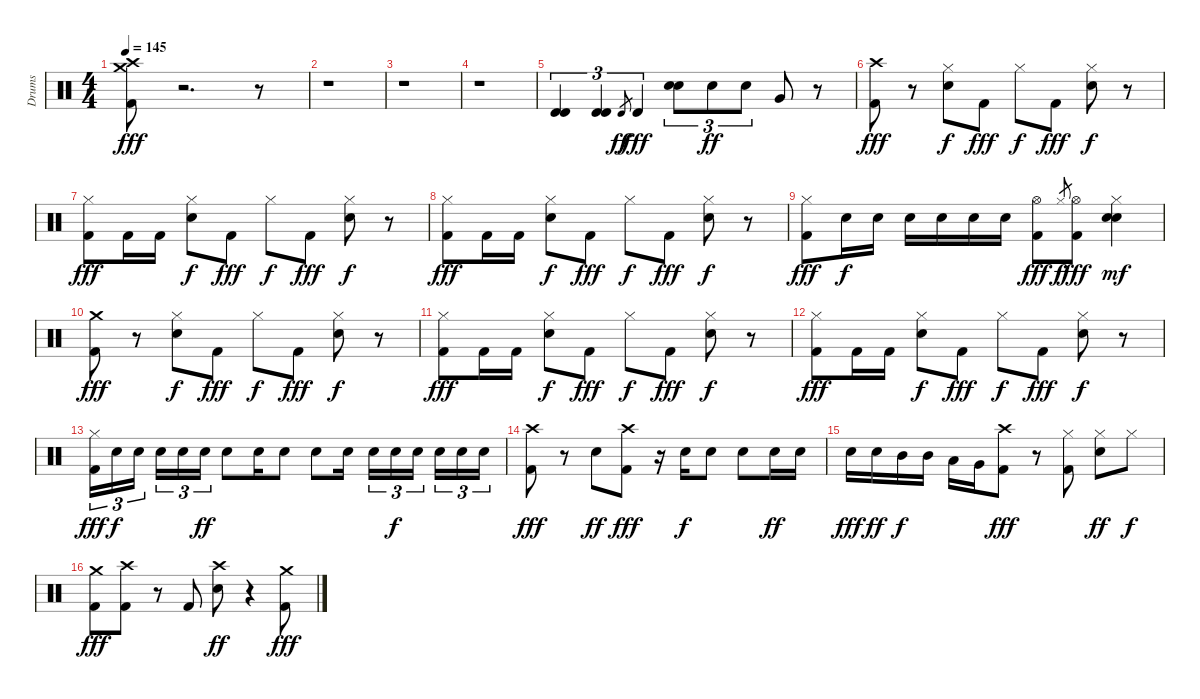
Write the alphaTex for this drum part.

\track ("Drums" "Drums") {instrument percussion}
\staff {score}
\articulation defaults
\ts (4 4)
\tempo 145
\clef neutral
\ks c
("Kick (hit) 2" "Crash high (hit)" "Crash medium (hit)").8{dy fff} r.2{d} r.8 |
r.1 |
r.1 |
r.1 |
("Timbale high (hit)" "Timbale high (hit)").4{tu (3 2)} ("Timbale high (hit)" "Timbale high (hit)").4{tu (3 2)} "Timbale high (hit)".8{gr dy ff} "Timbale high (hit)".4{tu (3 2) dy fff} ("Snare (hit) 2" "Snare (hit) 2").8{tu (3 2)} "Snare (hit) 2".8{tu (3 2) dy ff} "Snare (hit) 2".8{tu (3 2)} "Very Low Tom (hit)".8 r.8 |
("Kick (hit) 2" "Crash high (hit)").8{dy fff} r.8 ("Snare (hit) 2" "Hi-Hat (closed)").8{dy f} "Kick (hit) 2".8{dy fff} "Hi-Hat (closed)".8{dy f} "Kick (hit) 2".8{dy fff} ("Snare (hit) 2" "Hi-Hat (closed)").8{dy f} r.8 |
("Kick (hit) 2" "Hi-Hat (closed)").8{dy fff} "Kick (hit) 2".16 "Kick (hit) 2".16 ("Snare (hit) 2" "Hi-Hat (closed)").8{dy f} "Kick (hit) 2".8{dy fff} "Hi-Hat (closed)".8{dy f} "Kick (hit) 2".8{dy fff} ("Snare (hit) 2" "Hi-Hat (closed)").8{dy f} r.8 |
("Kick (hit) 2" "Hi-Hat (closed)").8{dy fff} "Kick (hit) 2".16 "Kick (hit) 2".16 ("Snare (hit) 2" "Hi-Hat (closed)").8{dy f} "Kick (hit) 2".8{dy fff} "Hi-Hat (closed)".8{dy f} "Kick (hit) 2".8{dy fff} ("Snare (hit) 2" "Hi-Hat (closed)").8{dy f} r.8 |
("Kick (hit) 2" "Hi-Hat (closed)").8{dy fff} "Snare (hit) 2".16{dy f} "Snare (hit) 2".16 "Snare (hit) 2".16 "Snare (hit) 2".16 "Snare (hit) 2".16 "Snare (hit) 2".16 ("Kick (hit) 2" "Hi-Hat (open)").8{dy fff} "Hi-Hat (closed)".8{gr dy f} ("Kick (hit) 2" "Hi-Hat (open)").8{dy fff} ("Snare (hit) 2" "Snare (hit) 2" "Hi-Hat (closed)").4{dy mf} |
("Kick (hit) 2" "Crash medium (hit)").8{dy fff} r.8 ("Snare (hit) 2" "Hi-Hat (closed)").8{dy f} "Kick (hit) 2".8{dy fff} "Hi-Hat (closed)".8{dy f} "Kick (hit) 2".8{dy fff} ("Snare (hit) 2" "Hi-Hat (closed)").8{dy f} r.8 |
("Kick (hit) 2" "Hi-Hat (closed)").8{dy fff} "Kick (hit) 2".16 "Kick (hit) 2".16 ("Snare (hit) 2" "Hi-Hat (closed)").8{dy f} "Kick (hit) 2".8{dy fff} "Hi-Hat (closed)".8{dy f} "Kick (hit) 2".8{dy fff} ("Snare (hit) 2" "Hi-Hat (closed)").8{dy f} r.8 |
("Kick (hit) 2" "Hi-Hat (closed)").8{dy fff} "Kick (hit) 2".16 "Kick (hit) 2".16 ("Snare (hit) 2" "Hi-Hat (closed)").8{dy f} "Kick (hit) 2".8{dy fff} "Hi-Hat (closed)".8{dy f} "Kick (hit) 2".8{dy fff} ("Snare (hit) 2" "Hi-Hat (closed)").8{dy f} r.8 |
("Kick (hit) 2" "Hi-Hat (closed)").16{tu (3 2) dy fff} "Snare (hit) 2".16{tu (3 2) dy f} "Snare (hit) 2".16{tu (3 2)} "Snare (hit) 2".16{tu (3 2)} "Snare (hit) 2".16{tu (3 2)} "Snare (hit) 2".16{tu (3 2) dy ff} "Snare (hit) 2".8 "Snare (hit) 2".16 "Snare (hit) 2".8 "Snare (hit) 2".8 "Snare (hit) 2".16 "Snare (hit) 2".16{tu (3 2)} "Snare (hit) 2".16{tu (3 2) dy f} "Snare (hit) 2".16{tu (3 2)} "Snare (hit) 2".16{tu (3 2)} "Snare (hit) 2".16{tu (3 2)} "Snare (hit) 2".16{tu (3 2)} |
("Kick (hit) 2" "Crash high (hit)").8{dy fff} r.8 "Snare (hit) 2".8{dy ff} ("Kick (hit) 2" "Crash high (hit)").8{dy fff} r.16 "Snare (hit) 2".16{dy f} "Snare (hit) 2".8 "Snare (hit) 2".8 "Snare (hit) 2".16{dy ff} "Snare (hit) 2".16 |
"Snare (hit) 2".16{dy fff} "Snare (hit) 2".16{dy ff} "Mid Tom (hit)".16{dy f} "Mid Tom (hit)".16 "Low Tom (hit)".16 "Very Low Tom (hit)".16 ("Kick (hit) 2" "Crash high (hit)").8{dy fff} r.8 ("Kick (hit) 2" "Hi-Hat (closed)").8 ("Snare (hit) 2" "Hi-Hat (closed)").8{dy ff} "Hi-Hat (closed)".8{dy f} |
("Kick (hit) 2" "Crash medium (hit)").8{dy fff} ("Kick (hit) 2" "Crash high (hit)").8 r.8 "Kick (hit) 2".8 ("Snare (hit) 2" "Crash high (hit)").8{dy ff} r.4 ("Kick (hit) 2" "Crash medium (hit)").8{dy fff}
